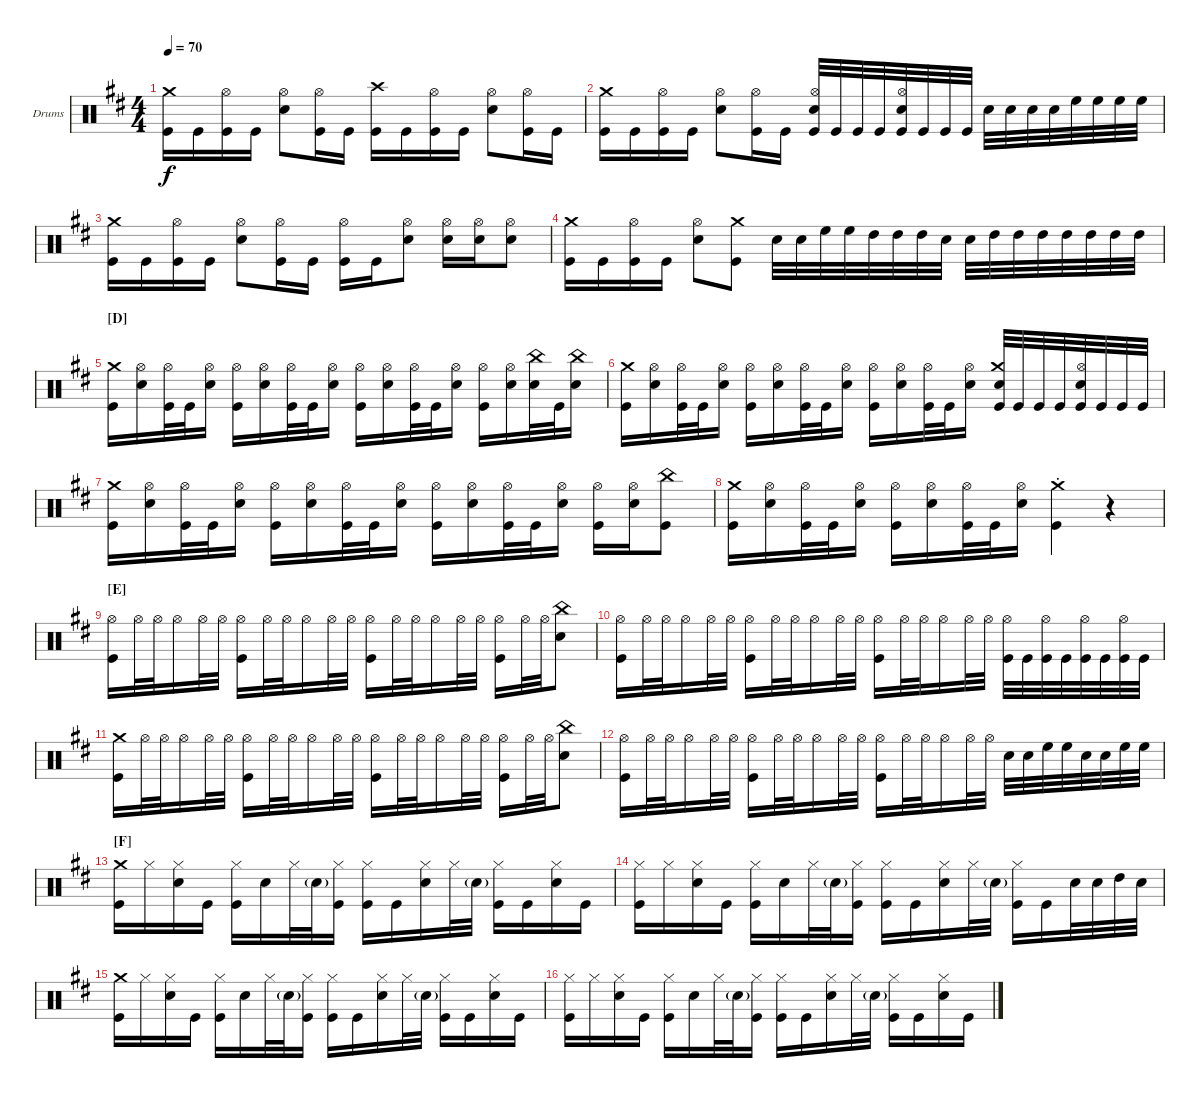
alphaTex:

\bracketExtendMode groupsimilarinstruments
\firstSystemTrackNameOrientation horizontal
\otherSystemsTrackNameOrientation horizontal
\track ("Drums" "Drums") {instrument percussion}
\staff {score}
\articulation defaults
\ts (4 4)
\tempo 70
\clef neutral
\ks bminor
("Kick (hit)" "Crash medium (hit)").16{dy f} "Kick (hit)".16 ("Kick (hit)" "Hi-Hat (open)").16 "Kick (hit)".16 ("Snare (hit) 2" "Hi-Hat (open)").8 ("Kick (hit)" "Hi-Hat (open)").16 "Kick (hit)".16 ("Kick (hit)" "Crash high (hit)").16 "Kick (hit)".16 ("Kick (hit)" "Hi-Hat (open)").16 "Kick (hit)".16 ("Snare (hit) 2" "Hi-Hat (open)").8 ("Kick (hit)" "Hi-Hat (open)").16 "Kick (hit)".16 |
("Kick (hit)" "Crash medium (hit)").16 "Kick (hit)".16 ("Kick (hit)" "Hi-Hat (open)").16 "Kick (hit)".16 ("Snare (hit) 2" "Hi-Hat (open)").8 ("Kick (hit)" "Hi-Hat (open)").16 "Kick (hit)".16 ("Hi-Hat (open)" "Kick (hit)" "Snare (hit) 2").32 "Kick (hit)".32 "Kick (hit)".32 "Kick (hit)".32 ("Hi-Hat (open)" "Kick (hit)" "Snare (hit) 2").32 "Kick (hit)".32 "Kick (hit)".32 "Kick (hit)".32 "Snare (hit) 2".32 "Snare (hit) 2".32 "Snare (hit) 2".32 "Snare (hit) 2".32 "High Floor Tom (hit)".32 "High Floor Tom (hit)".32 "High Floor Tom (hit)".32 "High Floor Tom (hit)".32 |
("Kick (hit)" "Crash medium (hit)").16 "Kick (hit)".16 ("Kick (hit)" "Hi-Hat (open)").16 "Kick (hit)".16 ("Snare (hit) 2" "Hi-Hat (open)").8 ("Kick (hit)" "Hi-Hat (open)").16 "Kick (hit)".16 ("Kick (hit)" "Hi-Hat (open)").16 "Kick (hit)".16 ("Snare (hit) 2" "Hi-Hat (open)").8 ("Snare (hit) 2" "Hi-Hat (open)").16 ("Snare (hit) 2" "Hi-Hat (open)").16 ("Snare (hit) 2" "Hi-Hat (open)").8 |
("Kick (hit)" "Crash medium (hit)").16 "Kick (hit)".16 ("Kick (hit)" "Hi-Hat (open)").16 "Kick (hit)".16 ("Snare (hit) 2" "Hi-Hat (open)").8 ("Kick (hit)" "Crash medium (hit)").8 "Snare (hit) 2".32 "Snare (hit) 2".32 "High Floor Tom (hit)".32 "High Floor Tom (hit)".32 "High Tom (hit)".32 "High Tom (hit)".32 "High Tom (hit)".32 "Snare (hit) 2".32 "Snare (hit) 2".32 "High Tom (hit)".32 "High Tom (hit)".32 "High Tom (hit)".32 "High Tom (hit)".32 "High Tom (hit)".32 "High Tom (hit)".32 "High Tom (hit)".32 |
\section ("D" "")
("Kick (hit)" "Crash medium (hit)").16 ("Snare (hit) 2" "Hi-Hat (open)").16 ("Kick (hit)" "Hi-Hat (open)").32 "Kick (hit)".32 ("Snare (hit) 2" "Hi-Hat (open)").16 ("Kick (hit)" "Hi-Hat (open)").16 ("Snare (hit) 2" "Hi-Hat (open)").16 ("Kick (hit)" "Hi-Hat (open)").32 "Kick (hit)".32 ("Snare (hit) 2" "Hi-Hat (open)").16 ("Kick (hit)" "Hi-Hat (open)").16 ("Snare (hit) 2" "Hi-Hat (open)").16 ("Kick (hit)" "Hi-Hat (open)").32 "Kick (hit)".32 ("Snare (hit) 2" "Hi-Hat (open)").16 ("Kick (hit)" "Hi-Hat (open)").16 ("Snare (hit) 2" "Hi-Hat (open)").16 ("Snare (hit) 2" "China (hit)").32 "Kick (hit)".32 ("Snare (hit) 2" "China (hit)").16 |
("Kick (hit)" "Crash medium (hit)").16 ("Snare (hit) 2" "Hi-Hat (open)").16 ("Kick (hit)" "Hi-Hat (open)").32 "Kick (hit)".32 ("Snare (hit) 2" "Hi-Hat (open)").16 ("Kick (hit)" "Hi-Hat (open)").16 ("Snare (hit) 2" "Hi-Hat (open)").16 ("Kick (hit)" "Hi-Hat (open)").32 "Kick (hit)".32 ("Snare (hit) 2" "Hi-Hat (open)").16 ("Kick (hit)" "Hi-Hat (open)").16 ("Snare (hit) 2" "Hi-Hat (open)").16 ("Kick (hit)" "Hi-Hat (open)").32 "Kick (hit)".32 ("Snare (hit) 2" "Hi-Hat (open)").16 ("Kick (hit)" "Snare (hit) 2" "Crash medium (hit)").32 "Kick (hit)".32 "Kick (hit)".32 "Kick (hit)".32 ("Hi-Hat (open)" "Kick (hit)" "Snare (hit) 2").32 "Kick (hit)".32 "Kick (hit)".32 "Kick (hit)".32 |
("Kick (hit)" "Crash medium (hit)").16 ("Snare (hit) 2" "Hi-Hat (open)").16 ("Kick (hit)" "Hi-Hat (open)").32 "Kick (hit)".32 ("Snare (hit) 2" "Hi-Hat (open)").16 ("Kick (hit)" "Hi-Hat (open)").16 ("Snare (hit) 2" "Hi-Hat (open)").16 ("Kick (hit)" "Hi-Hat (open)").32 "Kick (hit)".32 ("Snare (hit) 2" "Hi-Hat (open)").16 ("Kick (hit)" "Hi-Hat (open)").16 ("Snare (hit) 2" "Hi-Hat (open)").16 ("Kick (hit)" "Hi-Hat (open)").32 "Kick (hit)".32 ("Snare (hit) 2" "Hi-Hat (open)").16 ("Kick (hit)" "Hi-Hat (open)").16 ("Snare (hit) 2" "Hi-Hat (open)").16 ("Kick (hit)" "China (hit)").8 |
("Kick (hit)" "Crash medium (hit)").16 ("Snare (hit) 2" "Hi-Hat (open)").16 ("Kick (hit)" "Hi-Hat (open)").32 "Kick (hit)".32 ("Snare (hit) 2" "Hi-Hat (open)").16 ("Kick (hit)" "Hi-Hat (open)").16 ("Snare (hit) 2" "Hi-Hat (open)").16 ("Kick (hit)" "Hi-Hat (open)").32 "Kick (hit)".32 ("Snare (hit) 2" "Hi-Hat (open)").16 ("Kick (hit)"{st} "Crash medium (hit)"{st}).4 r.4 |
\section ("E" "")
("Kick (hit)" "Hi-Hat (open)").16 "Hi-Hat (open)".32 "Hi-Hat (open)".32 "Hi-Hat (open)".16 "Hi-Hat (open)".32 "Hi-Hat (open)".32 ("Kick (hit)" "Hi-Hat (open)").16 "Hi-Hat (open)".32 "Hi-Hat (open)".32 "Hi-Hat (open)".16 "Hi-Hat (open)".32 "Hi-Hat (open)".32 ("Kick (hit)" "Hi-Hat (open)").16 "Hi-Hat (open)".32 "Hi-Hat (open)".32 "Hi-Hat (open)".16 "Hi-Hat (open)".32 "Hi-Hat (open)".32 ("Kick (hit)" "Hi-Hat (open)").16 "Hi-Hat (open)".32 "Hi-Hat (open)".32 ("Snare (hit) 2" "China (hit)").8 |
("Kick (hit)" "Hi-Hat (open)").16 "Hi-Hat (open)".32 "Hi-Hat (open)".32 "Hi-Hat (open)".16 "Hi-Hat (open)".32 "Hi-Hat (open)".32 ("Kick (hit)" "Hi-Hat (open)").16 "Hi-Hat (open)".32 "Hi-Hat (open)".32 "Hi-Hat (open)".16 "Hi-Hat (open)".32 "Hi-Hat (open)".32 ("Kick (hit)" "Hi-Hat (open)").16 "Hi-Hat (open)".32 "Hi-Hat (open)".32 "Hi-Hat (open)".16 "Hi-Hat (open)".32 "Hi-Hat (open)".32 ("Kick (hit)" "Hi-Hat (open)").32 "Kick (hit)".32 ("Kick (hit)" "Hi-Hat (open)").32 "Kick (hit)".32 ("Kick (hit)" "Hi-Hat (open)").32 "Kick (hit)".32 ("Kick (hit)" "Hi-Hat (open)").32 "Kick (hit)".32 |
("Kick (hit)" "Crash medium (hit)").16 "Hi-Hat (open)".32 "Hi-Hat (open)".32 "Hi-Hat (open)".16 "Hi-Hat (open)".32 "Hi-Hat (open)".32 ("Kick (hit)" "Hi-Hat (open)").16 "Hi-Hat (open)".32 "Hi-Hat (open)".32 "Hi-Hat (open)".16 "Hi-Hat (open)".32 "Hi-Hat (open)".32 ("Kick (hit)" "Hi-Hat (open)").16 "Hi-Hat (open)".32 "Hi-Hat (open)".32 "Hi-Hat (open)".16 "Hi-Hat (open)".32 "Hi-Hat (open)".32 ("Kick (hit)" "Hi-Hat (open)").16 "Hi-Hat (open)".32 "Hi-Hat (open)".32 ("Snare (hit) 2" "China (hit)").8 |
("Kick (hit)" "Hi-Hat (open)").16 "Hi-Hat (open)".32 "Hi-Hat (open)".32 "Hi-Hat (open)".16 "Hi-Hat (open)".32 "Hi-Hat (open)".32 ("Kick (hit)" "Hi-Hat (open)").16 "Hi-Hat (open)".32 "Hi-Hat (open)".32 "Hi-Hat (open)".16 "Hi-Hat (open)".32 "Hi-Hat (open)".32 ("Kick (hit)" "Hi-Hat (open)").16 "Hi-Hat (open)".32 "Hi-Hat (open)".32 "Hi-Hat (open)".16 "Hi-Hat (open)".32 "Hi-Hat (open)".32 "Snare (hit) 2".32 "Snare (hit) 2".32 "High Floor Tom (hit)".32 "High Floor Tom (hit)".32 "Snare (hit) 2".32 "Snare (hit) 2".32 "High Floor Tom (hit)".32 "High Floor Tom (hit)".32 |
\section ("F" "")
("Kick (hit)" "Crash medium (hit)").16 "Hi-Hat (closed)".16 ("Hi-Hat (closed)" "Snare (hit) 2").16 "Kick (hit)".16 ("Kick (hit)" "Hi-Hat (closed)").16 "Snare (hit) 2".16 "Hi-Hat (closed)".32 "Snare (hit) 2"{g}.32 ("Hi-Hat (closed)" "Kick (hit)").16 ("Hi-Hat (closed)" "Kick (hit)").16 "Kick (hit)".16 ("Snare (hit) 2" "Hi-Hat (closed)").16 "Hi-Hat (closed)".32 "Snare (hit) 2"{g}.32 ("Hi-Hat (closed)" "Kick (hit)").16 "Kick (hit)".16 ("Snare (hit) 2" "Hi-Hat (closed)").16 "Kick (hit)".16 |
("Kick (hit)" "Hi-Hat (closed)").16 "Hi-Hat (closed)".16 ("Hi-Hat (closed)" "Snare (hit) 2").16 "Kick (hit)".16 ("Kick (hit)" "Hi-Hat (closed)").16 "Snare (hit) 2".16 "Hi-Hat (closed)".32 "Snare (hit) 2"{g}.32 ("Hi-Hat (closed)" "Kick (hit)").16 ("Hi-Hat (closed)" "Kick (hit)").16 "Kick (hit)".16 ("Snare (hit) 2" "Hi-Hat (closed)").16 "Hi-Hat (closed)".32 "Snare (hit) 2"{g}.32 ("Hi-Hat (closed)" "Kick (hit)").16 "Kick (hit)".16 "Snare (hit) 2".32 "Snare (hit) 2".32 "High Tom (hit)".32 "Snare (hit) 2".32 |
("Kick (hit)" "Crash medium (hit)").16 "Hi-Hat (closed)".16 ("Hi-Hat (closed)" "Snare (hit) 2").16 "Kick (hit)".16 ("Kick (hit)" "Hi-Hat (closed)").16 "Snare (hit) 2".16 "Hi-Hat (closed)".32 "Snare (hit) 2"{g}.32 ("Hi-Hat (closed)" "Kick (hit)").16 ("Hi-Hat (closed)" "Kick (hit)").16 "Kick (hit)".16 ("Snare (hit) 2" "Hi-Hat (closed)").16 "Hi-Hat (closed)".32 "Snare (hit) 2"{g}.32 ("Hi-Hat (closed)" "Kick (hit)").16 "Kick (hit)".16 ("Snare (hit) 2" "Hi-Hat (closed)").16 "Kick (hit)".16 |
("Kick (hit)" "Hi-Hat (closed)").16 "Hi-Hat (closed)".16 ("Hi-Hat (closed)" "Snare (hit) 2").16 "Kick (hit)".16 ("Kick (hit)" "Hi-Hat (closed)").16 "Snare (hit) 2".16 "Hi-Hat (closed)".32 "Snare (hit) 2"{g}.32 ("Hi-Hat (closed)" "Kick (hit)").16 ("Hi-Hat (closed)" "Kick (hit)").16 "Kick (hit)".16 ("Snare (hit) 2" "Hi-Hat (closed)").16 "Hi-Hat (closed)".32 "Snare (hit) 2"{g}.32 ("Hi-Hat (closed)" "Kick (hit)").16 "Kick (hit)".16 ("Hi-Hat (closed)" "Snare (hit) 2").16 "Kick (hit)".16
